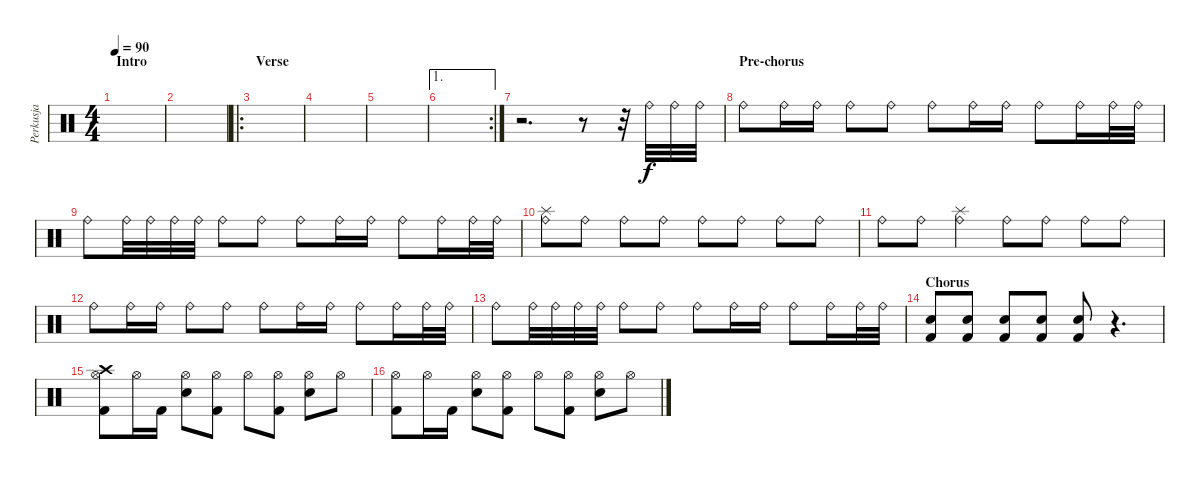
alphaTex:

\track ("Perkusja" "Perkusja") {instrument percussion}
\staff {score}
\articulation defaults
\ts (4 4)
\section ("" "Intro")
\tempo 90
\clef neutral
\ks c
|
|
\ro
\section ("" "Verse")
|
|
|
\ae 1
\rc 2
|
r.2{d} r.8 r.32 "Ride (bell)".32 "Ride (bell)".32 "Ride (bell)".32 |
\section ("" "Pre-chorus")
"Ride (bell)".8 "Ride (bell)".16 "Ride (bell)".16 "Ride (bell)".8 "Ride (bell)".8 "Ride (bell)".8 "Ride (bell)".16 "Ride (bell)".16 "Ride (bell)".8 "Ride (bell)".16 "Ride (bell)".32 "Ride (bell)".32 |
"Ride (bell)".8 "Ride (bell)".32 "Ride (bell)".32 "Ride (bell)".32 "Ride (bell)".32 "Ride (bell)".8 "Ride (bell)".8 "Ride (bell)".8 "Ride (bell)".16 "Ride (bell)".16 "Ride (bell)".8 "Ride (bell)".16 "Ride (bell)".32 "Ride (bell)".32 |
("Ride (bell)" "Splash (hit)").8 "Ride (bell)".8 "Ride (bell)".8 "Ride (bell)".8 "Ride (bell)".8 "Ride (bell)".8 "Ride (bell)".8 "Ride (bell)".8 |
"Ride (bell)".8 "Ride (bell)".8 ("Ride (bell)" "Splash (hit)").4 "Ride (bell)".8 "Ride (bell)".8 "Ride (bell)".8 "Ride (bell)".8 |
"Ride (bell)".8 "Ride (bell)".16 "Ride (bell)".16 "Ride (bell)".8 "Ride (bell)".8 "Ride (bell)".8 "Ride (bell)".16 "Ride (bell)".16 "Ride (bell)".8 "Ride (bell)".16 "Ride (bell)".32 "Ride (bell)".32 |
"Ride (bell)".8 "Ride (bell)".32 "Ride (bell)".32 "Ride (bell)".32 "Ride (bell)".32 "Ride (bell)".8 "Ride (bell)".8 "Ride (bell)".8 "Ride (bell)".16 "Ride (bell)".16 "Ride (bell)".8 "Ride (bell)".16 "Ride (bell)".32 "Ride (bell)".32 |
\section ("" "Chorus")
("Snare (hit) 2" "Kick (hit) 2").8 ("Snare (hit) 2" "Kick (hit) 2").8 ("Snare (hit) 2" "Kick (hit) 2").8 ("Snare (hit) 2" "Kick (hit) 2").8 ("Snare (hit) 2" "Kick (hit) 2").8 r.4{d} |
("Hi-Hat (open)" "Kick (hit) 2" "Crash high (hit)").8 "Hi-Hat (open)".16 "Kick (hit) 2".16 ("Hi-Hat (open)" "Snare (hit) 2").8 ("Hi-Hat (open)" "Kick (hit) 2").8 "Hi-Hat (open)".8 ("Hi-Hat (open)" "Kick (hit) 2").8 ("Hi-Hat (open)" "Snare (hit) 2").8 "Hi-Hat (open)".8 |
("Hi-Hat (open)" "Kick (hit) 2").8 "Hi-Hat (open)".16 "Kick (hit) 2".16 ("Hi-Hat (open)" "Snare (hit) 2").8 ("Hi-Hat (open)" "Kick (hit) 2").8 "Hi-Hat (open)".8 ("Hi-Hat (open)" "Kick (hit) 2").8 ("Hi-Hat (open)" "Snare (hit) 2").8 "Hi-Hat (open)".8
